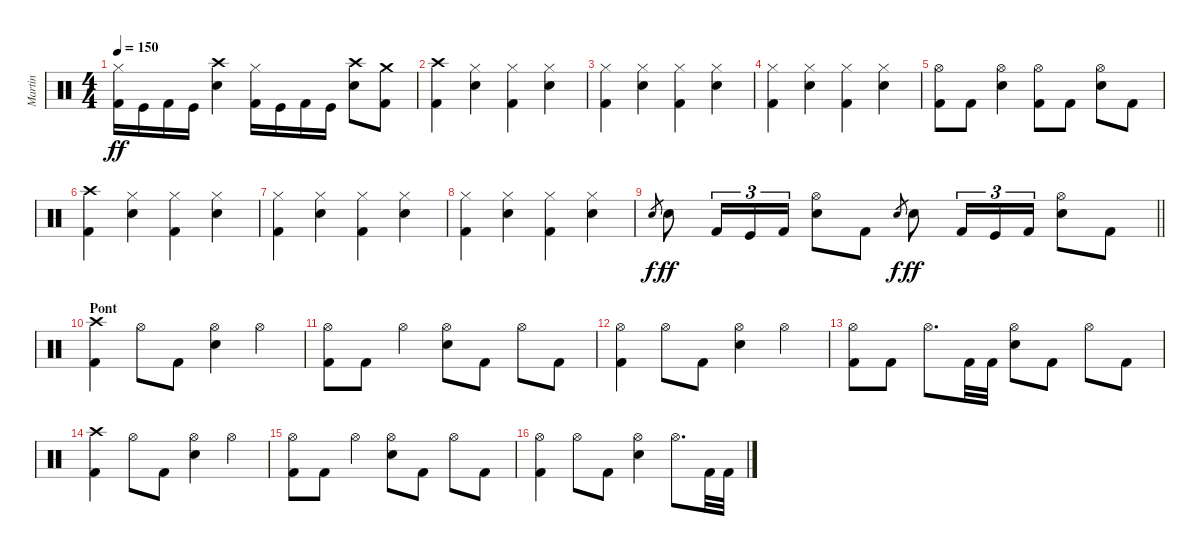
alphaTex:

\track ("Martin" "Martin") {instrument percussion}
\staff {score}
\articulation defaults
\ts (4 4)
\tempo 150
\clef neutral
\ks c
("Hi-Hat (closed)" "Kick (hit) 2").16{dy ff} "Kick (hit)".16 "Kick (hit) 2".16 "Kick (hit)".16 ("Crash high (hit)" "Electric Snare (hit)").4 ("Hi-Hat (closed)" "Kick (hit) 2").16 "Kick (hit)".16 "Kick (hit) 2".16 "Kick (hit)".16 ("Crash high (hit)" "Electric Snare (hit)").8 ("Crash medium (hit)" "Kick (hit) 2").8 |
("Crash high (hit)" "Kick (hit) 2").4 ("Hi-Hat (closed)" "Electric Snare (hit)").4 ("Hi-Hat (closed)" "Kick (hit) 2").4 ("Hi-Hat (closed)" "Electric Snare (hit)").4 |
("Hi-Hat (closed)" "Kick (hit) 2").4 ("Hi-Hat (closed)" "Electric Snare (hit)").4 ("Hi-Hat (closed)" "Kick (hit) 2").4 ("Hi-Hat (closed)" "Electric Snare (hit)").4 |
("Hi-Hat (closed)" "Kick (hit) 2").4 ("Hi-Hat (closed)" "Electric Snare (hit)").4 ("Hi-Hat (closed)" "Kick (hit) 2").4 ("Hi-Hat (closed)" "Electric Snare (hit)").4 |
("Hi-Hat (open)" "Kick (hit) 2").8 "Kick (hit) 2".8 ("Hi-Hat (open)" "Electric Snare (hit)").4 ("Hi-Hat (open)" "Kick (hit) 2").8 "Kick (hit) 2".8 ("Hi-Hat (open)" "Electric Snare (hit)").8 "Kick (hit) 2".8 |
("Crash high (hit)" "Kick (hit) 2").4 ("Hi-Hat (closed)" "Electric Snare (hit)").4 ("Hi-Hat (closed)" "Kick (hit) 2").4 ("Hi-Hat (closed)" "Electric Snare (hit)").4 |
("Hi-Hat (closed)" "Kick (hit) 2").4 ("Hi-Hat (closed)" "Electric Snare (hit)").4 ("Hi-Hat (closed)" "Kick (hit) 2").4 ("Hi-Hat (closed)" "Electric Snare (hit)").4 |
("Hi-Hat (closed)" "Kick (hit) 2").4 ("Hi-Hat (closed)" "Electric Snare (hit)").4 ("Hi-Hat (closed)" "Kick (hit) 2").4 ("Hi-Hat (closed)" "Electric Snare (hit)").4 |
\barLineRight lightlight "Electric Snare (hit)".8{gr dy f} "Electric Snare (hit)".8{dy ff} "Kick (hit) 2".16{tu (3 2)} "Kick (hit)".16{tu (3 2)} "Kick (hit) 2".16{tu (3 2)}
("Hi-Hat (open)" "Electric Snare (hit)").8 "Kick (hit) 2".8 "Electric Snare (hit)".8{gr dy f} "Electric Snare (hit)".8{dy ff} "Kick (hit) 2".16{tu (3 2)} "Kick (hit)".16{tu (3 2)} "Kick (hit) 2".16{tu (3 2)} ("Hi-Hat (open)" "Electric Snare (hit)").8 "Kick (hit) 2".8 |
\section ("" "Pont")
("Crash high (hit)" "Kick (hit) 2").4 "Hi-Hat (open)".8 "Kick (hit) 2".8 ("Hi-Hat (open)" "Electric Snare (hit)").4 "Hi-Hat (open)".4 |
("Hi-Hat (open)" "Kick (hit) 2").8 "Kick (hit) 2".8 "Hi-Hat (open)".4 ("Hi-Hat (open)" "Electric Snare (hit)").8 "Kick (hit) 2".8 "Hi-Hat (open)".8 "Kick (hit) 2".8 |
("Hi-Hat (open)" "Kick (hit) 2").4 "Hi-Hat (open)".8 "Kick (hit) 2".8 ("Hi-Hat (open)" "Electric Snare (hit)").4 "Hi-Hat (open)".4 |
("Hi-Hat (open)" "Kick (hit) 2").8 "Kick (hit) 2".8 "Hi-Hat (open)".8{d} "Kick (hit) 2".32 "Kick (hit) 2".32 ("Hi-Hat (open)" "Electric Snare (hit)").8 "Kick (hit) 2".8 "Hi-Hat (open)".8 "Kick (hit) 2".8 |
("Crash high (hit)" "Kick (hit) 2").4 "Hi-Hat (open)".8 "Kick (hit) 2".8 ("Hi-Hat (open)" "Electric Snare (hit)").4 "Hi-Hat (open)".4 |
("Hi-Hat (open)" "Kick (hit) 2").8 "Kick (hit) 2".8 "Hi-Hat (open)".4 ("Hi-Hat (open)" "Electric Snare (hit)").8 "Kick (hit) 2".8 "Hi-Hat (open)".8 "Kick (hit) 2".8 |
("Hi-Hat (open)" "Kick (hit) 2").4 "Hi-Hat (open)".8 "Kick (hit) 2".8 ("Hi-Hat (open)" "Electric Snare (hit)").4 "Hi-Hat (open)".8{d} "Kick (hit) 2".32 "Kick (hit) 2".32
